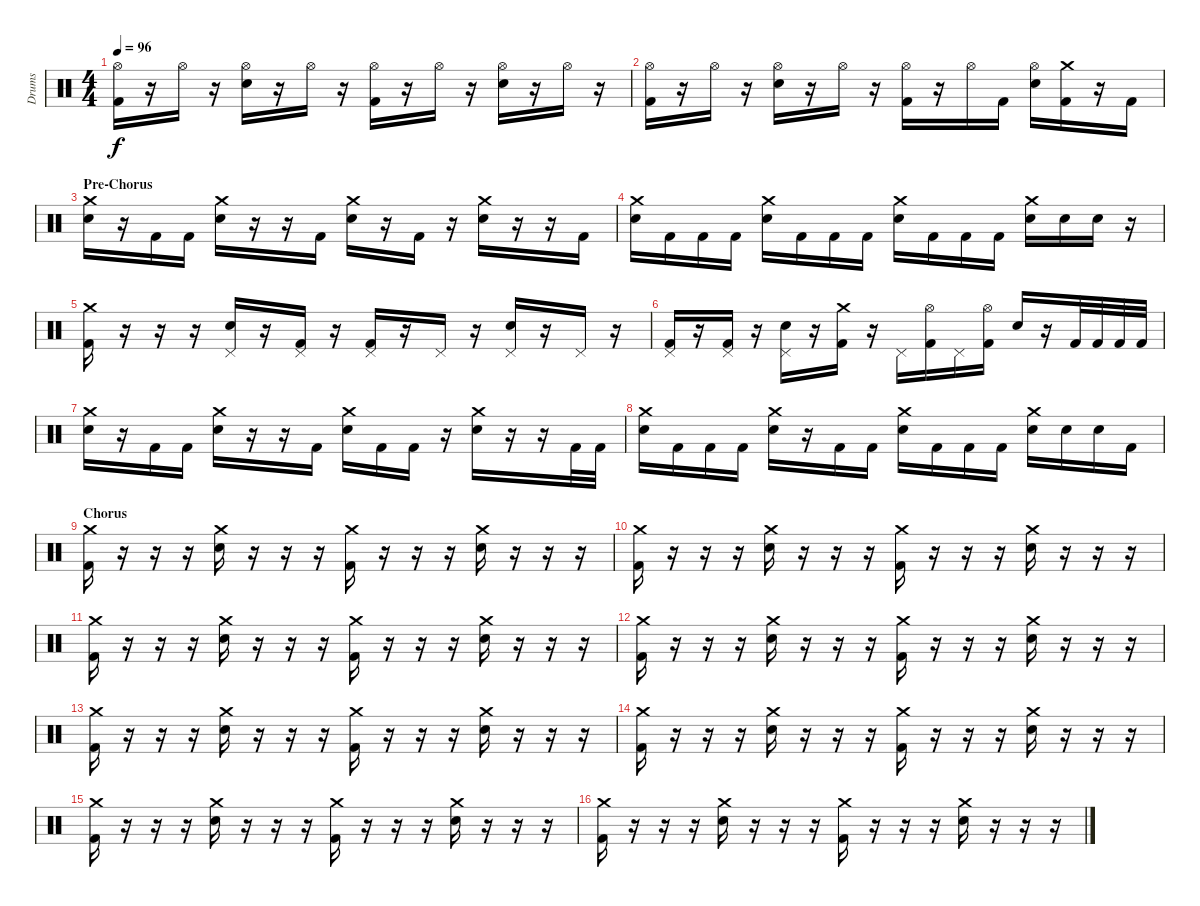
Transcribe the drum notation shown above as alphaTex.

\track ("Drums" "Drums") {instrument percussion}
\staff {score}
\articulation defaults
\ts (4 4)
\tempo 96
\clef neutral
\ks c
("Hi-Hat (open)" "Kick (hit) 2").16{dy f} r.16 "Hi-Hat (open)".16 r.16 ("Hi-Hat (open)" "Electric Snare (hit)").16 r.16 "Hi-Hat (open)".16 r.16 ("Hi-Hat (open)" "Kick (hit) 2").16 r.16 "Hi-Hat (open)".16 r.16 ("Hi-Hat (open)" "Electric Snare (hit)").16 r.16 "Hi-Hat (open)".16 r.16 |
("Hi-Hat (open)" "Kick (hit) 2").16 r.16 "Hi-Hat (open)".16 r.16 ("Hi-Hat (open)" "Electric Snare (hit)").16 r.16 "Hi-Hat (open)".16 r.16 ("Hi-Hat (open)" "Kick (hit) 2").16 r.16 "Hi-Hat (open)".16 "Kick (hit) 2".16 ("Hi-Hat (open)" "Electric Snare (hit)").16 ("Crash medium (hit)" "Kick (hit) 2").16 r.16 "Kick (hit) 2".16 |
\section ("" "Pre-Chorus")
("Crash medium (hit)" "Electric Snare (hit)").16 r.16 "Kick (hit) 2".16 "Kick (hit) 2".16 ("Crash medium (hit)" "Electric Snare (hit)").16 r.16 r.16 "Kick (hit) 2".16 ("Crash medium (hit)" "Electric Snare (hit)").16 r.16 "Kick (hit) 2".16 r.16 ("Crash medium (hit)" "Electric Snare (hit)").16 r.16 r.16 "Kick (hit) 2".16 |
("Crash medium (hit)" "Electric Snare (hit)").16 "Kick (hit) 2".16 "Kick (hit) 2".16 "Kick (hit) 2".16 ("Crash medium (hit)" "Electric Snare (hit)").16 "Kick (hit) 2".16 "Kick (hit) 2".16 "Kick (hit) 2".16 ("Crash medium (hit)" "Electric Snare (hit)").16 "Kick (hit) 2".16 "Kick (hit) 2".16 "Kick (hit) 2".16 ("Crash medium (hit)" "Electric Snare (hit)").16 "Electric Snare (hit)".16 "Electric Snare (hit)".16 r.16 |
("Crash medium (hit)" "Kick (hit) 2").16 r.16 r.16 r.16 ("Pedal Hi-Hat (hit)" "Electric Snare (hit)").16 r.16 ("Pedal Hi-Hat (hit)" "Kick (hit) 2").16 r.16 ("Pedal Hi-Hat (hit)" "Kick (hit) 2").16 r.16 "Pedal Hi-Hat (hit)".16 r.16 ("Pedal Hi-Hat (hit)" "Electric Snare (hit)").16 r.16 "Pedal Hi-Hat (hit)".16 r.16 |
("Pedal Hi-Hat (hit)" "Kick (hit) 2").16 r.16 ("Pedal Hi-Hat (hit)" "Kick (hit) 2").16 r.16 ("Pedal Hi-Hat (hit)" "Electric Snare (hit)").16 r.16 ("Crash medium (hit)" "Kick (hit) 2").16 r.16 "Pedal Hi-Hat (hit)".16 ("Hi-Hat (open)" "Kick (hit) 2").16 "Pedal Hi-Hat (hit)".16 ("Hi-Hat (open)" "Kick (hit) 2").16 "Electric Snare (hit)".16 r.16 "Kick (hit) 2".32 "Kick (hit) 2".32 "Kick (hit) 2".32 "Kick (hit) 2".32 |
("Crash medium (hit)" "Electric Snare (hit)").16 r.16 "Kick (hit) 2".16 "Kick (hit) 2".16 ("Crash medium (hit)" "Electric Snare (hit)").16 r.16 r.16 "Kick (hit) 2".16 ("Crash medium (hit)" "Electric Snare (hit)").16 "Kick (hit) 2".16 "Kick (hit) 2".16 r.16 ("Crash medium (hit)" "Electric Snare (hit)").16 r.16 r.16 "Kick (hit) 2".32 "Kick (hit) 2".32 |
("Crash medium (hit)" "Electric Snare (hit)").16 "Kick (hit) 2".16 "Kick (hit) 2".16 "Kick (hit) 2".16 ("Crash medium (hit)" "Electric Snare (hit)").16 r.16 "Kick (hit) 2".16 "Kick (hit) 2".16 ("Crash medium (hit)" "Electric Snare (hit)").16 "Kick (hit) 2".16 "Kick (hit) 2".16 "Kick (hit) 2".16 ("Crash medium (hit)" "Electric Snare (hit)").16 "Electric Snare (hit)".16 "Electric Snare (hit)".16 "Kick (hit) 2".16 |
\section ("" "Chorus")
("Crash medium (hit)" "Kick (hit) 2").16 r.16 r.16 r.16 ("Crash medium (hit)" "Electric Snare (hit)").16 r.16 r.16 r.16 ("Crash medium (hit)" "Kick (hit) 2").16 r.16 r.16 r.16 ("Crash medium (hit)" "Electric Snare (hit)").16 r.16 r.16 r.16 |
("Crash medium (hit)" "Kick (hit) 2").16 r.16 r.16 r.16 ("Crash medium (hit)" "Electric Snare (hit)").16 r.16 r.16 r.16 ("Crash medium (hit)" "Kick (hit) 2").16 r.16 r.16 r.16 ("Crash medium (hit)" "Electric Snare (hit)").16 r.16 r.16 r.16 |
("Crash medium (hit)" "Kick (hit) 2").16 r.16 r.16 r.16 ("Crash medium (hit)" "Electric Snare (hit)").16 r.16 r.16 r.16 ("Crash medium (hit)" "Kick (hit) 2").16 r.16 r.16 r.16 ("Crash medium (hit)" "Electric Snare (hit)").16 r.16 r.16 r.16 |
("Crash medium (hit)" "Kick (hit) 2").16 r.16 r.16 r.16 ("Crash medium (hit)" "Electric Snare (hit)").16 r.16 r.16 r.16 ("Crash medium (hit)" "Kick (hit) 2").16 r.16 r.16 r.16 ("Crash medium (hit)" "Electric Snare (hit)").16 r.16 r.16 r.16 |
("Crash medium (hit)" "Kick (hit) 2").16 r.16 r.16 r.16 ("Crash medium (hit)" "Electric Snare (hit)").16 r.16 r.16 r.16 ("Crash medium (hit)" "Kick (hit) 2").16 r.16 r.16 r.16 ("Crash medium (hit)" "Electric Snare (hit)").16 r.16 r.16 r.16 |
("Crash medium (hit)" "Kick (hit) 2").16 r.16 r.16 r.16 ("Crash medium (hit)" "Electric Snare (hit)").16 r.16 r.16 r.16 ("Crash medium (hit)" "Kick (hit) 2").16 r.16 r.16 r.16 ("Crash medium (hit)" "Electric Snare (hit)").16 r.16 r.16 r.16 |
("Crash medium (hit)" "Kick (hit) 2").16 r.16 r.16 r.16 ("Crash medium (hit)" "Electric Snare (hit)").16 r.16 r.16 r.16 ("Crash medium (hit)" "Kick (hit) 2").16 r.16 r.16 r.16 ("Crash medium (hit)" "Electric Snare (hit)").16 r.16 r.16 r.16 |
("Crash medium (hit)" "Kick (hit) 2").16 r.16 r.16 r.16 ("Crash medium (hit)" "Electric Snare (hit)").16 r.16 r.16 r.16 ("Crash medium (hit)" "Kick (hit) 2").16 r.16 r.16 r.16 ("Crash medium (hit)" "Electric Snare (hit)").16 r.16 r.16 r.16
